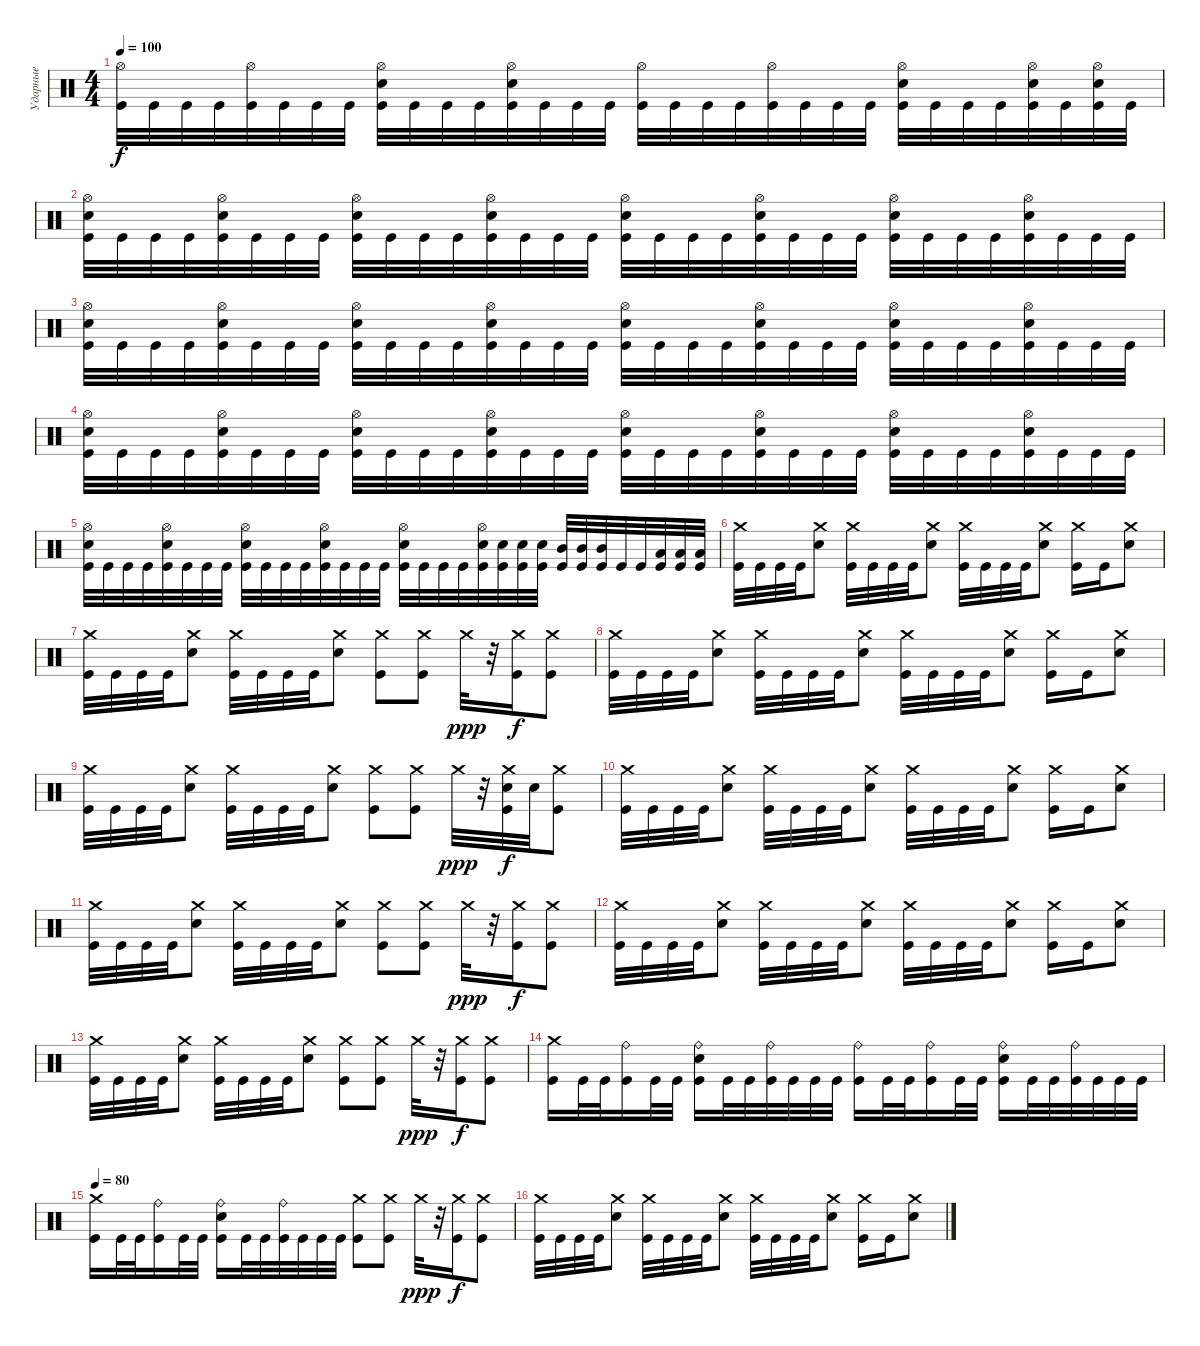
\track ("Ударные" "Ударные") {instrument percussion}
\staff {score}
\articulation defaults
\ts (4 4)
\tempo 100
\clef neutral
\ks c
("Hi-Hat (open)" "Kick (hit)").32{dy f} "Kick (hit)".32 "Kick (hit)".32 "Kick (hit)".32 ("Hi-Hat (open)" "Kick (hit)").32 "Kick (hit)".32 "Kick (hit)".32 "Kick (hit)".32 ("Hi-Hat (open)" "Snare (hit) 2" "Kick (hit)").32 "Kick (hit)".32 "Kick (hit)".32 "Kick (hit)".32 ("Hi-Hat (open)" "Snare (hit) 2" "Kick (hit)").32 "Kick (hit)".32 "Kick (hit)".32 "Kick (hit)".32 ("Hi-Hat (open)" "Kick (hit)").32 "Kick (hit)".32 "Kick (hit)".32 "Kick (hit)".32 ("Hi-Hat (open)" "Kick (hit)").32 "Kick (hit)".32 "Kick (hit)".32 "Kick (hit)".32 ("Hi-Hat (open)" "Snare (hit) 2" "Kick (hit)").32 "Kick (hit)".32 "Kick (hit)".32 "Kick (hit)".32 ("Hi-Hat (open)" "Snare (hit) 2" "Kick (hit)").32 "Kick (hit)".32 ("Hi-Hat (open)" "Snare (hit) 2" "Kick (hit)").32 "Kick (hit)".32 |
("Hi-Hat (open)" "Snare (hit) 2" "Kick (hit)").32 "Kick (hit)".32 "Kick (hit)".32 "Kick (hit)".32 ("Hi-Hat (open)" "Snare (hit) 2" "Kick (hit)").32 "Kick (hit)".32 "Kick (hit)".32 "Kick (hit)".32 ("Hi-Hat (open)" "Snare (hit) 2" "Kick (hit)").32 "Kick (hit)".32 "Kick (hit)".32 "Kick (hit)".32 ("Hi-Hat (open)" "Snare (hit) 2" "Kick (hit)").32 "Kick (hit)".32 "Kick (hit)".32 "Kick (hit)".32 ("Hi-Hat (open)" "Snare (hit) 2" "Kick (hit)").32 "Kick (hit)".32 "Kick (hit)".32 "Kick (hit)".32 ("Hi-Hat (open)" "Snare (hit) 2" "Kick (hit)").32 "Kick (hit)".32 "Kick (hit)".32 "Kick (hit)".32 ("Hi-Hat (open)" "Snare (hit) 2" "Kick (hit)").32 "Kick (hit)".32 "Kick (hit)".32 "Kick (hit)".32 ("Hi-Hat (open)" "Snare (hit) 2" "Kick (hit)").32 "Kick (hit)".32 "Kick (hit)".32 "Kick (hit)".32 |
("Hi-Hat (open)" "Snare (hit) 2" "Kick (hit)").32 "Kick (hit)".32 "Kick (hit)".32 "Kick (hit)".32 ("Hi-Hat (open)" "Snare (hit) 2" "Kick (hit)").32 "Kick (hit)".32 "Kick (hit)".32 "Kick (hit)".32 ("Hi-Hat (open)" "Snare (hit) 2" "Kick (hit)").32 "Kick (hit)".32 "Kick (hit)".32 "Kick (hit)".32 ("Hi-Hat (open)" "Snare (hit) 2" "Kick (hit)").32 "Kick (hit)".32 "Kick (hit)".32 "Kick (hit)".32 ("Hi-Hat (open)" "Snare (hit) 2" "Kick (hit)").32 "Kick (hit)".32 "Kick (hit)".32 "Kick (hit)".32 ("Hi-Hat (open)" "Snare (hit) 2" "Kick (hit)").32 "Kick (hit)".32 "Kick (hit)".32 "Kick (hit)".32 ("Hi-Hat (open)" "Snare (hit) 2" "Kick (hit)").32 "Kick (hit)".32 "Kick (hit)".32 "Kick (hit)".32 ("Hi-Hat (open)" "Snare (hit) 2" "Kick (hit)").32 "Kick (hit)".32 "Kick (hit)".32 "Kick (hit)".32 |
("Hi-Hat (open)" "Snare (hit) 2" "Kick (hit)").32 "Kick (hit)".32 "Kick (hit)".32 "Kick (hit)".32 ("Hi-Hat (open)" "Snare (hit) 2" "Kick (hit)").32 "Kick (hit)".32 "Kick (hit)".32 "Kick (hit)".32 ("Hi-Hat (open)" "Snare (hit) 2" "Kick (hit)").32 "Kick (hit)".32 "Kick (hit)".32 "Kick (hit)".32 ("Hi-Hat (open)" "Snare (hit) 2" "Kick (hit)").32 "Kick (hit)".32 "Kick (hit)".32 "Kick (hit)".32 ("Hi-Hat (open)" "Snare (hit) 2" "Kick (hit)").32 "Kick (hit)".32 "Kick (hit)".32 "Kick (hit)".32 ("Hi-Hat (open)" "Snare (hit) 2" "Kick (hit)").32 "Kick (hit)".32 "Kick (hit)".32 "Kick (hit)".32 ("Hi-Hat (open)" "Snare (hit) 2" "Kick (hit)").32 "Kick (hit)".32 "Kick (hit)".32 "Kick (hit)".32 ("Hi-Hat (open)" "Snare (hit) 2" "Kick (hit)").32 "Kick (hit)".32 "Kick (hit)".32 "Kick (hit)".32 |
("Hi-Hat (open)" "Snare (hit) 2" "Kick (hit)").32 "Kick (hit)".32 "Kick (hit)".32 "Kick (hit)".32 ("Hi-Hat (open)" "Snare (hit) 2" "Kick (hit)").32 "Kick (hit)".32 "Kick (hit)".32 "Kick (hit)".32 ("Hi-Hat (open)" "Snare (hit) 2" "Kick (hit)").32 "Kick (hit)".32 "Kick (hit)".32 "Kick (hit)".32 ("Hi-Hat (open)" "Snare (hit) 2" "Kick (hit)").32 "Kick (hit)".32 "Kick (hit)".32 "Kick (hit)".32 ("Hi-Hat (open)" "Snare (hit) 2" "Kick (hit)").32 "Kick (hit)".32 "Kick (hit)".32 "Kick (hit)".32 ("Hi-Hat (open)" "Snare (hit) 2" "Kick (hit)").32 ("Snare (hit) 2" "Kick (hit)").32 ("Snare (hit) 2" "Kick (hit)").32 ("Snare (hit) 2" "Kick (hit)").32 ("Mid Tom (hit)" "Kick (hit)").32 ("Mid Tom (hit)" "Kick (hit)").32 ("Mid Tom (hit)" "Kick (hit)").32 "Kick (hit)".32 "Kick (hit)".32 ("Low Tom (hit)" "Kick (hit)").32 ("Low Tom (hit)" "Kick (hit)").32 ("Low Tom (hit)" "Kick (hit)").32 |
("Crash medium (hit)" "Kick (hit)").32 "Kick (hit)".32 "Kick (hit)".32 "Kick (hit)".32 ("Crash medium (hit)" "Snare (hit) 2").8 ("Crash medium (hit)" "Kick (hit)").32 "Kick (hit)".32 "Kick (hit)".32 "Kick (hit)".32 ("Crash medium (hit)" "Snare (hit) 2").8 ("Crash medium (hit)" "Kick (hit)").32 "Kick (hit)".32 "Kick (hit)".32 "Kick (hit)".32 ("Crash medium (hit)" "Snare (hit) 2").8 ("Crash medium (hit)" "Kick (hit)").16 "Kick (hit)".16 ("Crash medium (hit)" "Snare (hit) 2").8 |
("Crash medium (hit)" "Kick (hit)").32 "Kick (hit)".32 "Kick (hit)".32 "Kick (hit)".32 ("Crash medium (hit)" "Snare (hit) 2").8 ("Crash medium (hit)" "Kick (hit)").32 "Kick (hit)".32 "Kick (hit)".32 "Kick (hit)".32 ("Crash medium (hit)" "Snare (hit) 2").8 ("Crash medium (hit)" "Kick (hit)").8 ("Crash medium (hit)" "Kick (hit)").8 "Crash medium (hit)".32{dy ppp} r.32 ("Crash medium (hit)" "Kick (hit)").16{dy f} ("Crash medium (hit)" "Kick (hit)").8 |
("Crash medium (hit)" "Kick (hit)").32 "Kick (hit)".32 "Kick (hit)".32 "Kick (hit)".32 ("Crash medium (hit)" "Snare (hit) 2").8 ("Crash medium (hit)" "Kick (hit)").32 "Kick (hit)".32 "Kick (hit)".32 "Kick (hit)".32 ("Crash medium (hit)" "Snare (hit) 2").8 ("Crash medium (hit)" "Kick (hit)").32 "Kick (hit)".32 "Kick (hit)".32 "Kick (hit)".32 ("Crash medium (hit)" "Snare (hit) 2").8 ("Crash medium (hit)" "Kick (hit)").16 "Kick (hit)".16 ("Crash medium (hit)" "Snare (hit) 2").8 |
("Crash medium (hit)" "Kick (hit)").32 "Kick (hit)".32 "Kick (hit)".32 "Kick (hit)".32 ("Crash medium (hit)" "Snare (hit) 2").8 ("Crash medium (hit)" "Kick (hit)").32 "Kick (hit)".32 "Kick (hit)".32 "Kick (hit)".32 ("Crash medium (hit)" "Snare (hit) 2").8 ("Crash medium (hit)" "Kick (hit)").8 ("Crash medium (hit)" "Kick (hit)").8 "Crash medium (hit)".32{dy ppp} r.32 ("Crash medium (hit)" "Snare (hit) 2" "Kick (hit)").32{dy f} "Snare (hit) 2".32 ("Crash medium (hit)" "Kick (hit)").8 |
("Crash medium (hit)" "Kick (hit)").32 "Kick (hit)".32 "Kick (hit)".32 "Kick (hit)".32 ("Crash medium (hit)" "Snare (hit) 2").8 ("Crash medium (hit)" "Kick (hit)").32 "Kick (hit)".32 "Kick (hit)".32 "Kick (hit)".32 ("Crash medium (hit)" "Snare (hit) 2").8 ("Crash medium (hit)" "Kick (hit)").32 "Kick (hit)".32 "Kick (hit)".32 "Kick (hit)".32 ("Crash medium (hit)" "Snare (hit) 2").8 ("Crash medium (hit)" "Kick (hit)").16 "Kick (hit)".16 ("Crash medium (hit)" "Snare (hit) 2").8 |
("Crash medium (hit)" "Kick (hit)").32 "Kick (hit)".32 "Kick (hit)".32 "Kick (hit)".32 ("Crash medium (hit)" "Snare (hit) 2").8 ("Crash medium (hit)" "Kick (hit)").32 "Kick (hit)".32 "Kick (hit)".32 "Kick (hit)".32 ("Crash medium (hit)" "Snare (hit) 2").8 ("Crash medium (hit)" "Kick (hit)").8 ("Crash medium (hit)" "Kick (hit)").8 "Crash medium (hit)".32{dy ppp} r.32 ("Crash medium (hit)" "Kick (hit)").16{dy f} ("Crash medium (hit)" "Kick (hit)").8 |
("Crash medium (hit)" "Kick (hit)").32 "Kick (hit)".32 "Kick (hit)".32 "Kick (hit)".32 ("Crash medium (hit)" "Snare (hit) 2").8 ("Crash medium (hit)" "Kick (hit)").32 "Kick (hit)".32 "Kick (hit)".32 "Kick (hit)".32 ("Crash medium (hit)" "Snare (hit) 2").8 ("Crash medium (hit)" "Kick (hit)").32 "Kick (hit)".32 "Kick (hit)".32 "Kick (hit)".32 ("Crash medium (hit)" "Snare (hit) 2").8 ("Crash medium (hit)" "Kick (hit)").16 "Kick (hit)".16 ("Crash medium (hit)" "Snare (hit) 2").8 |
("Crash medium (hit)" "Kick (hit)").32 "Kick (hit)".32 "Kick (hit)".32 "Kick (hit)".32 ("Crash medium (hit)" "Snare (hit) 2").8 ("Crash medium (hit)" "Kick (hit)").32 "Kick (hit)".32 "Kick (hit)".32 "Kick (hit)".32 ("Crash medium (hit)" "Snare (hit) 2").8 ("Crash medium (hit)" "Kick (hit)").8 ("Crash medium (hit)" "Kick (hit)").8 "Crash medium (hit)".32{dy ppp} r.32 ("Crash medium (hit)" "Kick (hit)").16{dy f} ("Crash medium (hit)" "Kick (hit)").8 |
("Crash medium (hit)" "Kick (hit)").16 "Kick (hit)".32 "Kick (hit)".32 ("Ride (bell)" "Kick (hit)").16 "Kick (hit)".32 "Kick (hit)".32 ("Ride (bell)" "Snare (hit) 2" "Kick (hit)").16 "Kick (hit)".32 "Kick (hit)".32 ("Ride (bell)" "Kick (hit)").32 "Kick (hit)".32 "Kick (hit)".32 "Kick (hit)".32 ("Ride (bell)" "Kick (hit)").16 "Kick (hit)".32 "Kick (hit)".32 ("Ride (bell)" "Kick (hit)").16 "Kick (hit)".32 "Kick (hit)".32 ("Ride (bell)" "Snare (hit) 2" "Kick (hit)").16 "Kick (hit)".32 "Kick (hit)".32 ("Ride (bell)" "Kick (hit)").32 "Kick (hit)".32 "Kick (hit)".32 "Kick (hit)".32 |
\tempo 80
("Crash medium (hit)" "Kick (hit)").16 "Kick (hit)".32 "Kick (hit)".32 ("Ride (bell)" "Kick (hit)").16 "Kick (hit)".32 "Kick (hit)".32 ("Ride (bell)" "Snare (hit) 2" "Kick (hit)").16 "Kick (hit)".32 "Kick (hit)".32 ("Ride (bell)" "Kick (hit)").32 "Kick (hit)".32 "Kick (hit)".32 "Kick (hit)".32 ("Crash medium (hit)" "Kick (hit)").8 ("Crash medium (hit)" "Kick (hit)").8 "Crash medium (hit)".32{dy ppp} r.32 ("Crash medium (hit)" "Kick (hit)").16{dy f} ("Crash medium (hit)" "Kick (hit)").8 |
("Crash medium (hit)" "Kick (hit)").32 "Kick (hit)".32 "Kick (hit)".32 "Kick (hit)".32 ("Crash medium (hit)" "Snare (hit) 2").8 ("Crash medium (hit)" "Kick (hit)").32 "Kick (hit)".32 "Kick (hit)".32 "Kick (hit)".32 ("Crash medium (hit)" "Snare (hit) 2").8 ("Crash medium (hit)" "Kick (hit)").32 "Kick (hit)".32 "Kick (hit)".32 "Kick (hit)".32 ("Crash medium (hit)" "Snare (hit) 2").8 ("Crash medium (hit)" "Kick (hit)").16 "Kick (hit)".16 ("Crash medium (hit)" "Snare (hit) 2").8
